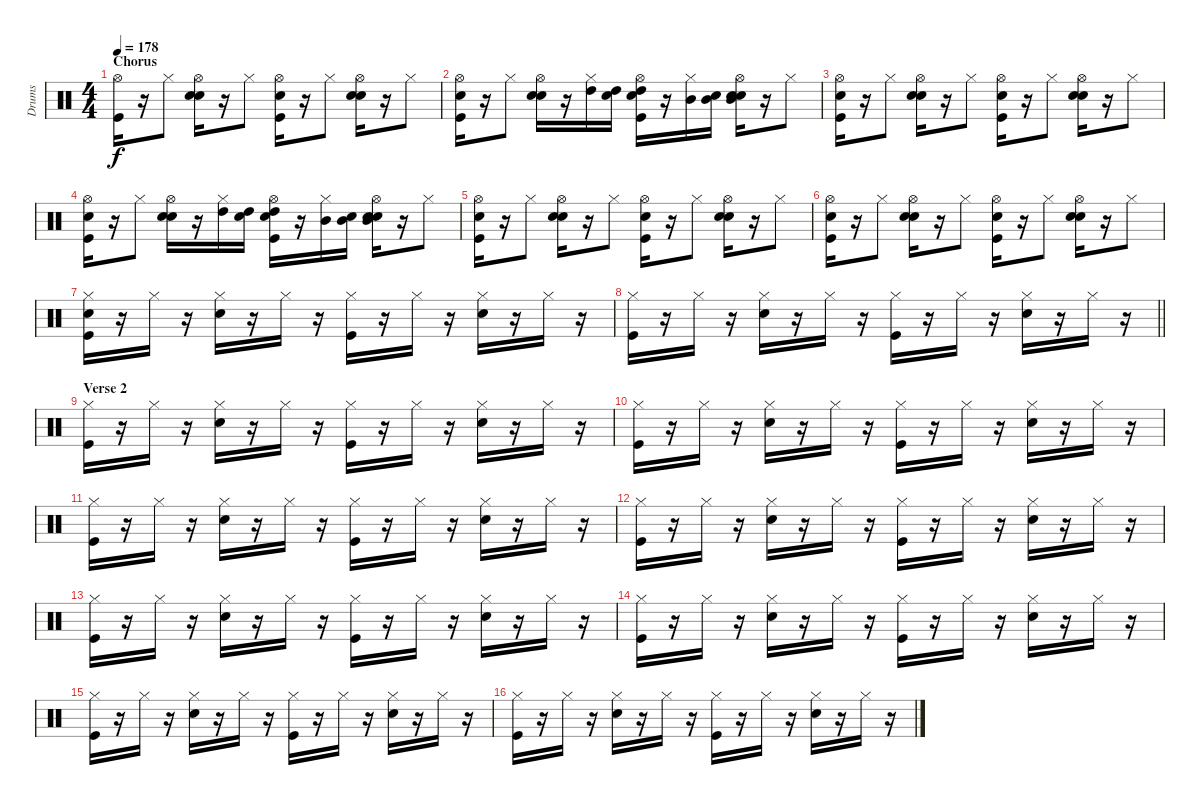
\track ("Drums               " "Drums     ") {instrument percussion}
\staff {score}
\articulation defaults
\ts (4 4)
\section ("" "Chorus")
\tempo 178
\clef neutral
\ks c
("Kick (hit)" "Hi-Hat (open)").16{dy f} r.16 "Hi-Hat (closed)".8 ("Snare (hit)" "Snare (hit) 2" "Hi-Hat (open)").16 r.16 "Hi-Hat (closed)".8 ("Snare (hit)" "Kick (hit)" "Hi-Hat (open)").16 r.16 "Hi-Hat (closed)".8 ("Snare (hit)" "Snare (hit) 2" "Hi-Hat (open)").16 r.16 "Hi-Hat (closed)".8 |
("Snare (hit)" "Kick (hit)" "Hi-Hat (open)").16 r.16 "Hi-Hat (closed)".8 ("Snare (hit)" "Snare (hit) 2" "Hi-Hat (open)").16 r.16 ("High Tom (hit)" "Hi-Hat (closed)").16 ("Snare (hit)" "High Tom (hit)").16 ("Snare (hit)" "Kick (hit)" "High Tom (hit)" "Hi-Hat (open)").16 r.16 ("Mid Tom (hit)" "Hi-Hat (closed)").16 ("Snare (hit)" "Mid Tom (hit)").16 ("Snare (hit)" "Snare (hit) 2" "Mid Tom (hit)" "Hi-Hat (open)").16 r.16 "Hi-Hat (closed)".8 |
("Snare (hit)" "Kick (hit)" "Hi-Hat (open)").16 r.16 "Hi-Hat (closed)".8 ("Snare (hit)" "Snare (hit) 2" "Hi-Hat (open)").16 r.16 "Hi-Hat (closed)".8 ("Snare (hit)" "Kick (hit)" "Hi-Hat (open)").16 r.16 "Hi-Hat (closed)".8 ("Snare (hit)" "Snare (hit) 2" "Hi-Hat (open)").16 r.16 "Hi-Hat (closed)".8 |
("Snare (hit)" "Kick (hit)" "Hi-Hat (open)").16 r.16 "Hi-Hat (closed)".8 ("Snare (hit)" "Snare (hit) 2" "Hi-Hat (open)").16 r.16 ("Hi-Hat (closed)" "High Tom (hit)").16 ("Snare (hit)" "High Tom (hit)").16 ("Snare (hit)" "Kick (hit)" "High Tom (hit)" "Hi-Hat (open)").16 r.16 ("Hi-Hat (closed)" "Mid Tom (hit)").16 ("Snare (hit)" "Mid Tom (hit)").16 ("Snare (hit)" "Snare (hit) 2" "Mid Tom (hit)" "Hi-Hat (open)").16 r.16 "Hi-Hat (closed)".8 |
("Snare (hit)" "Kick (hit)" "Hi-Hat (open)").16 r.16 "Hi-Hat (closed)".8 ("Snare (hit)" "Snare (hit) 2" "Hi-Hat (open)").16 r.16 "Hi-Hat (closed)".8 ("Snare (hit)" "Kick (hit)" "Hi-Hat (open)").16 r.16 "Hi-Hat (closed)".8 ("Snare (hit)" "Snare (hit) 2" "Hi-Hat (open)").16 r.16 "Hi-Hat (closed)".8 |
("Snare (hit)" "Kick (hit)" "Hi-Hat (open)").16 r.16 "Hi-Hat (closed)".8 ("Snare (hit)" "Snare (hit) 2" "Hi-Hat (open)").16 r.16 "Hi-Hat (closed)".8 ("Snare (hit)" "Kick (hit)" "Hi-Hat (open)").16 r.16 "Hi-Hat (closed)".8 ("Snare (hit)" "Snare (hit) 2" "Hi-Hat (open)").16 r.16 "Hi-Hat (closed)".8 |
("Snare (hit)" "Kick (hit)" "Hi-Hat (closed)").16 r.16 "Hi-Hat (closed)".16 r.16 ("Snare (hit) 2" "Hi-Hat (closed)").16 r.16 "Hi-Hat (closed)".16 r.16 ("Kick (hit)" "Hi-Hat (closed)").16 r.16 "Hi-Hat (closed)".16 r.16 ("Snare (hit) 2" "Hi-Hat (closed)").16 r.16 "Hi-Hat (closed)".16 r.16 |
\barLineRight lightlight
("Kick (hit)" "Hi-Hat (closed)").16 r.16 "Hi-Hat (closed)".16 r.16 ("Snare (hit) 2" "Hi-Hat (closed)").16 r.16 "Hi-Hat (closed)".16 r.16 ("Kick (hit)" "Hi-Hat (closed)").16 r.16 "Hi-Hat (closed)".16 r.16 ("Snare (hit) 2" "Hi-Hat (closed)").16 r.16 "Hi-Hat (closed)".16 r.16 |
\section ("" "Verse 2")
("Kick (hit)" "Hi-Hat (closed)").16 r.16 "Hi-Hat (closed)".16 r.16 ("Snare (hit) 2" "Hi-Hat (closed)").16 r.16 "Hi-Hat (closed)".16 r.16 ("Kick (hit)" "Hi-Hat (closed)").16 r.16 "Hi-Hat (closed)".16 r.16 ("Snare (hit) 2" "Hi-Hat (closed)").16 r.16 "Hi-Hat (closed)".16 r.16 |
("Kick (hit)" "Hi-Hat (closed)").16 r.16 "Hi-Hat (closed)".16 r.16 ("Snare (hit) 2" "Hi-Hat (closed)").16 r.16 "Hi-Hat (closed)".16 r.16 ("Kick (hit)" "Hi-Hat (closed)").16 r.16 "Hi-Hat (closed)".16 r.16 ("Snare (hit) 2" "Hi-Hat (closed)").16 r.16 "Hi-Hat (closed)".16 r.16 |
("Kick (hit)" "Hi-Hat (closed)").16 r.16 "Hi-Hat (closed)".16 r.16 ("Snare (hit) 2" "Hi-Hat (closed)").16 r.16 "Hi-Hat (closed)".16 r.16 ("Kick (hit)" "Hi-Hat (closed)").16 r.16 "Hi-Hat (closed)".16 r.16 ("Snare (hit) 2" "Hi-Hat (closed)").16 r.16 "Hi-Hat (closed)".16 r.16 |
("Kick (hit)" "Hi-Hat (closed)").16 r.16 "Hi-Hat (closed)".16 r.16 ("Snare (hit) 2" "Hi-Hat (closed)").16 r.16 "Hi-Hat (closed)".16 r.16 ("Kick (hit)" "Hi-Hat (closed)").16 r.16 "Hi-Hat (closed)".16 r.16 ("Snare (hit) 2" "Hi-Hat (closed)").16 r.16 "Hi-Hat (closed)".16 r.16 |
("Kick (hit)" "Hi-Hat (closed)").16 r.16 "Hi-Hat (closed)".16 r.16 ("Snare (hit) 2" "Hi-Hat (closed)").16 r.16 "Hi-Hat (closed)".16 r.16 ("Kick (hit)" "Hi-Hat (closed)").16 r.16 "Hi-Hat (closed)".16 r.16 ("Snare (hit) 2" "Hi-Hat (closed)").16 r.16 "Hi-Hat (closed)".16 r.16 |
("Kick (hit)" "Hi-Hat (closed)").16 r.16 "Hi-Hat (closed)".16 r.16 ("Snare (hit) 2" "Hi-Hat (closed)").16 r.16 "Hi-Hat (closed)".16 r.16 ("Kick (hit)" "Hi-Hat (closed)").16 r.16 "Hi-Hat (closed)".16 r.16 ("Snare (hit) 2" "Hi-Hat (closed)").16 r.16 "Hi-Hat (closed)".16 r.16 |
("Kick (hit)" "Hi-Hat (closed)").16 r.16 "Hi-Hat (closed)".16 r.16 ("Snare (hit) 2" "Hi-Hat (closed)").16 r.16 "Hi-Hat (closed)".16 r.16 ("Kick (hit)" "Hi-Hat (closed)").16 r.16 "Hi-Hat (closed)".16 r.16 ("Snare (hit) 2" "Hi-Hat (closed)").16 r.16 "Hi-Hat (closed)".16 r.16 |
("Kick (hit)" "Hi-Hat (closed)").16 r.16 "Hi-Hat (closed)".16 r.16 ("Snare (hit) 2" "Hi-Hat (closed)").16 r.16 "Hi-Hat (closed)".16 r.16 ("Kick (hit)" "Hi-Hat (closed)").16 r.16 "Hi-Hat (closed)".16 r.16 ("Snare (hit) 2" "Hi-Hat (closed)").16 r.16 "Hi-Hat (closed)".16 r.16
